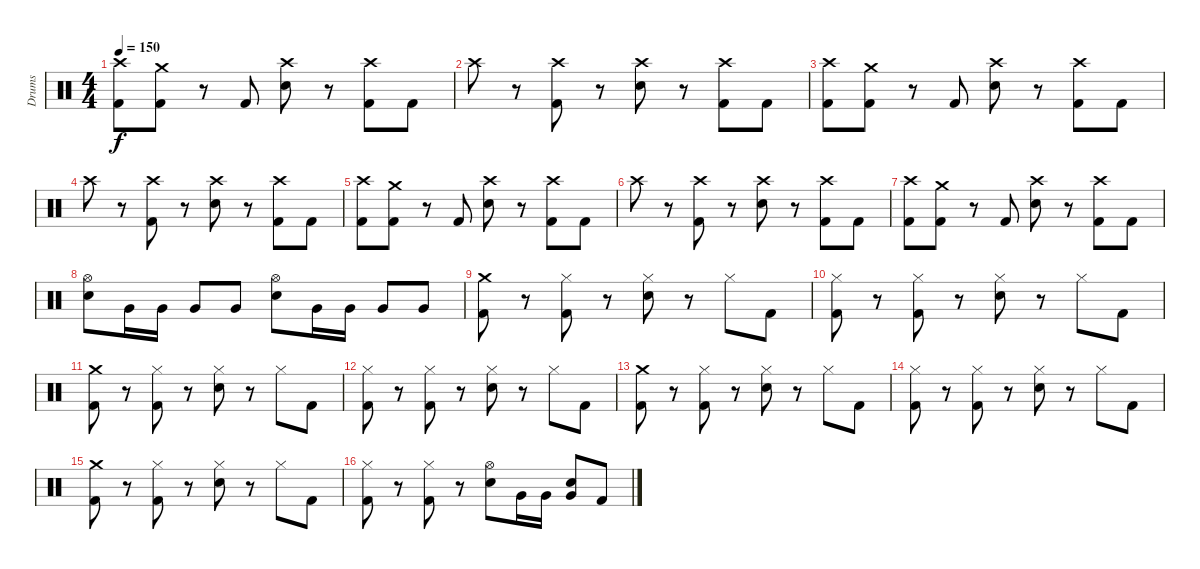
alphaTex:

\track ("Drums" "Drums") {instrument percussion}
\staff {score}
\articulation defaults
\ts (4 4)
\tempo 150
\clef neutral
\ks c
("Crash high (hit)" "Kick (hit) 2").8{dy f} ("Crash medium (hit)" "Kick (hit) 2").8 r.8 "Kick (hit) 2".8 ("Crash high (hit)" "Electric Snare (hit)").8 r.8 ("Crash high (hit)" "Kick (hit) 2").8 "Kick (hit) 2".8 |
"Crash high (hit)".8 r.8 ("Crash high (hit)" "Kick (hit) 2").8 r.8 ("Crash high (hit)" "Electric Snare (hit)").8 r.8 ("Crash high (hit)" "Kick (hit) 2").8 "Kick (hit) 2".8 |
("Crash high (hit)" "Kick (hit) 2").8 ("Crash medium (hit)" "Kick (hit) 2").8 r.8 "Kick (hit) 2".8 ("Crash high (hit)" "Electric Snare (hit)").8 r.8 ("Crash high (hit)" "Kick (hit) 2").8 "Kick (hit) 2".8 |
"Crash high (hit)".8 r.8 ("Crash high (hit)" "Kick (hit) 2").8 r.8 ("Crash high (hit)" "Electric Snare (hit)").8 r.8 ("Crash high (hit)" "Kick (hit) 2").8 "Kick (hit) 2".8 |
("Crash high (hit)" "Kick (hit) 2").8 ("Crash medium (hit)" "Kick (hit) 2").8 r.8 "Kick (hit) 2".8 ("Crash high (hit)" "Electric Snare (hit)").8 r.8 ("Crash high (hit)" "Kick (hit) 2").8 "Kick (hit) 2".8 |
"Crash high (hit)".8 r.8 ("Crash high (hit)" "Kick (hit) 2").8 r.8 ("Crash high (hit)" "Electric Snare (hit)").8 r.8 ("Crash high (hit)" "Kick (hit) 2").8 "Kick (hit) 2".8 |
("Crash high (hit)" "Kick (hit) 2").8 ("Crash medium (hit)" "Kick (hit) 2").8 r.8 "Kick (hit) 2".8 ("Crash high (hit)" "Electric Snare (hit)").8 r.8 ("Crash high (hit)" "Kick (hit) 2").8 "Kick (hit) 2".8 |
("Hi-Hat (open)" "Electric Snare (hit)").8 "Very Low Tom (hit)".16 "Very Low Tom (hit)".16 "Very Low Tom (hit)".8 "Very Low Tom (hit)".8 ("Hi-Hat (open)" "Electric Snare (hit)").8 "Very Low Tom (hit)".16 "Very Low Tom (hit)".16 "Very Low Tom (hit)".8 "Very Low Tom (hit)".8 |
("Crash medium (hit)" "Kick (hit) 2").8 r.8 ("Hi-Hat (closed)" "Kick (hit) 2").8 r.8 ("Hi-Hat (closed)" "Electric Snare (hit)").8 r.8 "Hi-Hat (closed)".8 "Kick (hit) 2".8 |
("Hi-Hat (closed)" "Kick (hit) 2").8 r.8 ("Hi-Hat (closed)" "Kick (hit) 2").8 r.8 ("Hi-Hat (closed)" "Electric Snare (hit)").8 r.8 "Hi-Hat (closed)".8 "Kick (hit) 2".8 |
("Crash medium (hit)" "Kick (hit) 2").8 r.8 ("Hi-Hat (closed)" "Kick (hit) 2").8 r.8 ("Hi-Hat (closed)" "Electric Snare (hit)").8 r.8 "Hi-Hat (closed)".8 "Kick (hit) 2".8 |
("Hi-Hat (closed)" "Kick (hit) 2").8 r.8 ("Hi-Hat (closed)" "Kick (hit) 2").8 r.8 ("Hi-Hat (closed)" "Electric Snare (hit)").8 r.8 "Hi-Hat (closed)".8 "Kick (hit) 2".8 |
("Crash medium (hit)" "Kick (hit) 2").8 r.8 ("Hi-Hat (closed)" "Kick (hit) 2").8 r.8 ("Hi-Hat (closed)" "Electric Snare (hit)").8 r.8 "Hi-Hat (closed)".8 "Kick (hit) 2".8 |
("Hi-Hat (closed)" "Kick (hit) 2").8 r.8 ("Hi-Hat (closed)" "Kick (hit) 2").8 r.8 ("Hi-Hat (closed)" "Electric Snare (hit)").8 r.8 "Hi-Hat (closed)".8 "Kick (hit) 2".8 |
("Crash medium (hit)" "Kick (hit) 2").8 r.8 ("Hi-Hat (closed)" "Kick (hit) 2").8 r.8 ("Hi-Hat (closed)" "Electric Snare (hit)").8 r.8 "Hi-Hat (closed)".8 "Kick (hit) 2".8 |
("Hi-Hat (closed)" "Kick (hit) 2").8 r.8 ("Hi-Hat (closed)" "Kick (hit) 2").8 r.8 ("Hi-Hat (open)" "Electric Snare (hit)").8 "Very Low Tom (hit)".16 "Very Low Tom (hit)".16 ("Very Low Tom (hit)" "Electric Snare (hit)").8 "Kick (hit) 2".8
